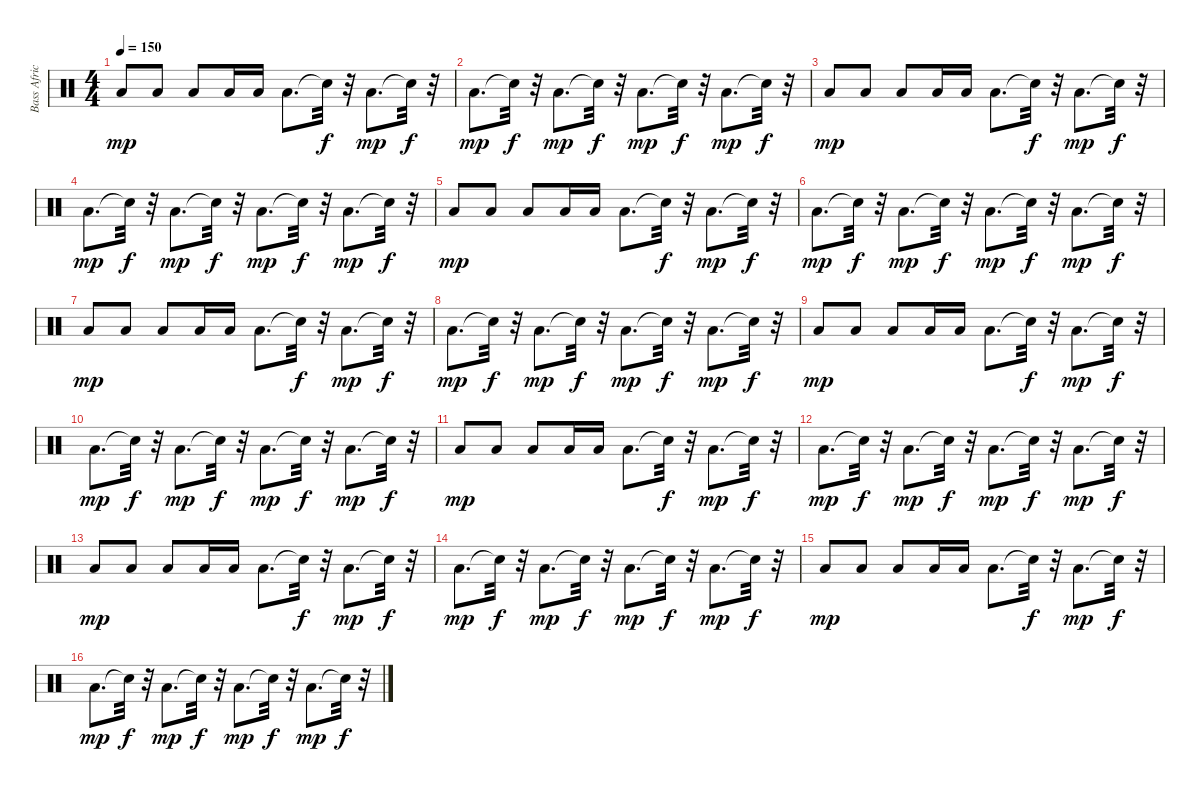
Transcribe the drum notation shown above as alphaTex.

\track ("Bass African Drum" "Bass Afric") {instrument percussion}
\staff {score}
\articulation defaults
\ts (4 4)
\tempo 150
\clef neutral
\ks c "Low Floor Tom (hit)".8{dy mp} "Low Floor Tom (hit)".8 "Low Floor Tom (hit)".8 "Low Floor Tom (hit)".16 "Low Floor Tom (hit)".16 "Low Floor Tom (hit)".8{d} "Snare (hit)"{t}.32{dy f}
r.32 "Low Floor Tom (hit)".8{d dy mp} "Snare (hit)"{t}.32{dy f} r.32 |
"Low Floor Tom (hit)".8{d dy mp} "Snare (hit)"{t}.32{dy f} r.32 "Low Floor Tom (hit)".8{d dy mp} "Snare (hit)"{t}.32{dy f} r.32 "Low Floor Tom (hit)".8{d dy mp} "Snare (hit)"{t}.32{dy f} r.32 "Low Floor Tom (hit)".8{d dy mp} "Snare (hit)"{t}.32{dy f} r.32 |
"Low Floor Tom (hit)".8{dy mp} "Low Floor Tom (hit)".8 "Low Floor Tom (hit)".8 "Low Floor Tom (hit)".16 "Low Floor Tom (hit)".16 "Low Floor Tom (hit)".8{d} "Snare (hit)"{t}.32{dy f} r.32 "Low Floor Tom (hit)".8{d dy mp} "Snare (hit)"{t}.32{dy f} r.32 |
"Low Floor Tom (hit)".8{d dy mp} "Snare (hit)"{t}.32{dy f} r.32 "Low Floor Tom (hit)".8{d dy mp} "Snare (hit)"{t}.32{dy f} r.32 "Low Floor Tom (hit)".8{d dy mp} "Snare (hit)"{t}.32{dy f} r.32 "Low Floor Tom (hit)".8{d dy mp} "Snare (hit)"{t}.32{dy f} r.32 |
"Low Floor Tom (hit)".8{dy mp} "Low Floor Tom (hit)".8 "Low Floor Tom (hit)".8 "Low Floor Tom (hit)".16 "Low Floor Tom (hit)".16 "Low Floor Tom (hit)".8{d} "Snare (hit)"{t}.32{dy f} r.32 "Low Floor Tom (hit)".8{d dy mp} "Snare (hit)"{t}.32{dy f} r.32 |
"Low Floor Tom (hit)".8{d dy mp} "Snare (hit)"{t}.32{dy f} r.32 "Low Floor Tom (hit)".8{d dy mp} "Snare (hit)"{t}.32{dy f} r.32 "Low Floor Tom (hit)".8{d dy mp} "Snare (hit)"{t}.32{dy f} r.32 "Low Floor Tom (hit)".8{d dy mp} "Snare (hit)"{t}.32{dy f} r.32 |
"Low Floor Tom (hit)".8{dy mp} "Low Floor Tom (hit)".8 "Low Floor Tom (hit)".8 "Low Floor Tom (hit)".16 "Low Floor Tom (hit)".16 "Low Floor Tom (hit)".8{d} "Snare (hit)"{t}.32{dy f} r.32 "Low Floor Tom (hit)".8{d dy mp} "Snare (hit)"{t}.32{dy f} r.32 |
"Low Floor Tom (hit)".8{d dy mp} "Snare (hit)"{t}.32{dy f} r.32 "Low Floor Tom (hit)".8{d dy mp} "Snare (hit)"{t}.32{dy f} r.32 "Low Floor Tom (hit)".8{d dy mp} "Snare (hit)"{t}.32{dy f} r.32 "Low Floor Tom (hit)".8{d dy mp} "Snare (hit)"{t}.32{dy f} r.32 |
"Low Floor Tom (hit)".8{dy mp} "Low Floor Tom (hit)".8 "Low Floor Tom (hit)".8 "Low Floor Tom (hit)".16 "Low Floor Tom (hit)".16 "Low Floor Tom (hit)".8{d} "Snare (hit)"{t}.32{dy f} r.32 "Low Floor Tom (hit)".8{d dy mp} "Snare (hit)"{t}.32{dy f} r.32 |
"Low Floor Tom (hit)".8{d dy mp} "Snare (hit)"{t}.32{dy f} r.32 "Low Floor Tom (hit)".8{d dy mp} "Snare (hit)"{t}.32{dy f} r.32 "Low Floor Tom (hit)".8{d dy mp} "Snare (hit)"{t}.32{dy f} r.32 "Low Floor Tom (hit)".8{d dy mp} "Snare (hit)"{t}.32{dy f} r.32 |
"Low Floor Tom (hit)".8{dy mp} "Low Floor Tom (hit)".8 "Low Floor Tom (hit)".8 "Low Floor Tom (hit)".16 "Low Floor Tom (hit)".16 "Low Floor Tom (hit)".8{d} "Snare (hit)"{t}.32{dy f} r.32 "Low Floor Tom (hit)".8{d dy mp} "Snare (hit)"{t}.32{dy f} r.32 |
"Low Floor Tom (hit)".8{d dy mp} "Snare (hit)"{t}.32{dy f} r.32 "Low Floor Tom (hit)".8{d dy mp} "Snare (hit)"{t}.32{dy f} r.32 "Low Floor Tom (hit)".8{d dy mp} "Snare (hit)"{t}.32{dy f} r.32 "Low Floor Tom (hit)".8{d dy mp} "Snare (hit)"{t}.32{dy f} r.32 |
"Low Floor Tom (hit)".8{dy mp} "Low Floor Tom (hit)".8 "Low Floor Tom (hit)".8 "Low Floor Tom (hit)".16 "Low Floor Tom (hit)".16 "Low Floor Tom (hit)".8{d} "Snare (hit)"{t}.32{dy f} r.32 "Low Floor Tom (hit)".8{d dy mp} "Snare (hit)"{t}.32{dy f} r.32 |
"Low Floor Tom (hit)".8{d dy mp} "Snare (hit)"{t}.32{dy f} r.32 "Low Floor Tom (hit)".8{d dy mp} "Snare (hit)"{t}.32{dy f} r.32 "Low Floor Tom (hit)".8{d dy mp} "Snare (hit)"{t}.32{dy f} r.32 "Low Floor Tom (hit)".8{d dy mp} "Snare (hit)"{t}.32{dy f} r.32 |
"Low Floor Tom (hit)".8{dy mp} "Low Floor Tom (hit)".8 "Low Floor Tom (hit)".8 "Low Floor Tom (hit)".16 "Low Floor Tom (hit)".16 "Low Floor Tom (hit)".8{d} "Snare (hit)"{t}.32{dy f} r.32 "Low Floor Tom (hit)".8{d dy mp} "Snare (hit)"{t}.32{dy f} r.32 |
"Low Floor Tom (hit)".8{d dy mp} "Snare (hit)"{t}.32{dy f} r.32 "Low Floor Tom (hit)".8{d dy mp} "Snare (hit)"{t}.32{dy f} r.32 "Low Floor Tom (hit)".8{d dy mp} "Snare (hit)"{t}.32{dy f} r.32 "Low Floor Tom (hit)".8{d dy mp} "Snare (hit)"{t}.32{dy f} r.32
